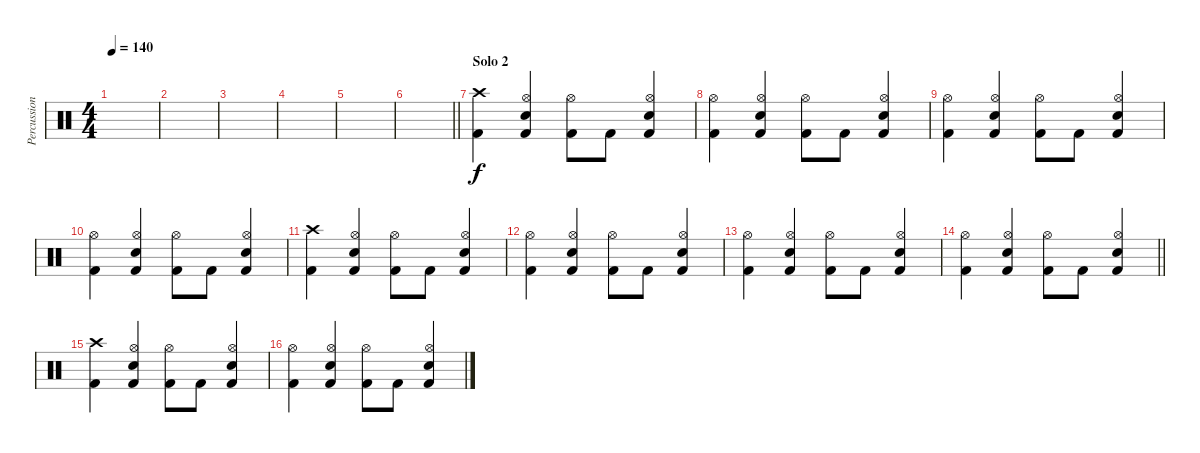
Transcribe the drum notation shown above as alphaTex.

\track ("Percussions" "Percussion") {instrument percussion}
\staff {score}
\articulation defaults
\ts (4 4)
\tempo 140
\clef neutral
\ks c
|
|
|
|
|
\barLineRight lightlight
|
\section ("" "Solo 2")
("Crash high (hit)" "Kick (hit) 2").4 ("Hi-Hat (open)" "Electric Snare (hit)" "Kick (hit) 2").4 ("Hi-Hat (open)" "Kick (hit) 2").8 "Kick (hit) 2".8 ("Hi-Hat (open)" "Electric Snare (hit)" "Kick (hit) 2").4 |
("Hi-Hat (open)" "Kick (hit) 2").4 ("Hi-Hat (open)" "Electric Snare (hit)" "Kick (hit) 2").4 ("Hi-Hat (open)" "Kick (hit) 2").8 "Kick (hit) 2".8 ("Hi-Hat (open)" "Electric Snare (hit)" "Kick (hit) 2").4 |
("Hi-Hat (open)" "Kick (hit) 2").4 ("Hi-Hat (open)" "Electric Snare (hit)" "Kick (hit) 2").4 ("Hi-Hat (open)" "Kick (hit) 2").8 "Kick (hit) 2".8 ("Hi-Hat (open)" "Electric Snare (hit)" "Kick (hit) 2").4 |
("Hi-Hat (open)" "Kick (hit) 2").4 ("Hi-Hat (open)" "Electric Snare (hit)" "Kick (hit) 2").4 ("Hi-Hat (open)" "Kick (hit) 2").8 "Kick (hit) 2".8 ("Hi-Hat (open)" "Electric Snare (hit)" "Kick (hit) 2").4 |
("Crash high (hit)" "Kick (hit) 2").4 ("Hi-Hat (open)" "Electric Snare (hit)" "Kick (hit) 2").4 ("Hi-Hat (open)" "Kick (hit) 2").8 "Kick (hit) 2".8 ("Hi-Hat (open)" "Electric Snare (hit)" "Kick (hit) 2").4 |
("Hi-Hat (open)" "Kick (hit) 2").4 ("Hi-Hat (open)" "Electric Snare (hit)" "Kick (hit) 2").4 ("Hi-Hat (open)" "Kick (hit) 2").8 "Kick (hit) 2".8 ("Hi-Hat (open)" "Electric Snare (hit)" "Kick (hit) 2").4 |
("Hi-Hat (open)" "Kick (hit) 2").4 ("Hi-Hat (open)" "Electric Snare (hit)" "Kick (hit) 2").4 ("Hi-Hat (open)" "Kick (hit) 2").8 "Kick (hit) 2".8 ("Hi-Hat (open)" "Electric Snare (hit)" "Kick (hit) 2").4 |
\barLineRight lightlight
("Hi-Hat (open)" "Kick (hit) 2").4 ("Hi-Hat (open)" "Electric Snare (hit)" "Kick (hit) 2").4 ("Hi-Hat (open)" "Kick (hit) 2").8 "Kick (hit) 2".8 ("Hi-Hat (open)" "Electric Snare (hit)" "Kick (hit) 2").4 |
("Crash high (hit)" "Kick (hit) 2").4 ("Hi-Hat (open)" "Electric Snare (hit)" "Kick (hit) 2").4 ("Hi-Hat (open)" "Kick (hit) 2").8 "Kick (hit) 2".8 ("Hi-Hat (open)" "Electric Snare (hit)" "Kick (hit) 2").4 |
("Hi-Hat (open)" "Kick (hit) 2").4 ("Hi-Hat (open)" "Electric Snare (hit)" "Kick (hit) 2").4 ("Hi-Hat (open)" "Kick (hit) 2").8 "Kick (hit) 2".8 ("Hi-Hat (open)" "Electric Snare (hit)" "Kick (hit) 2").4
